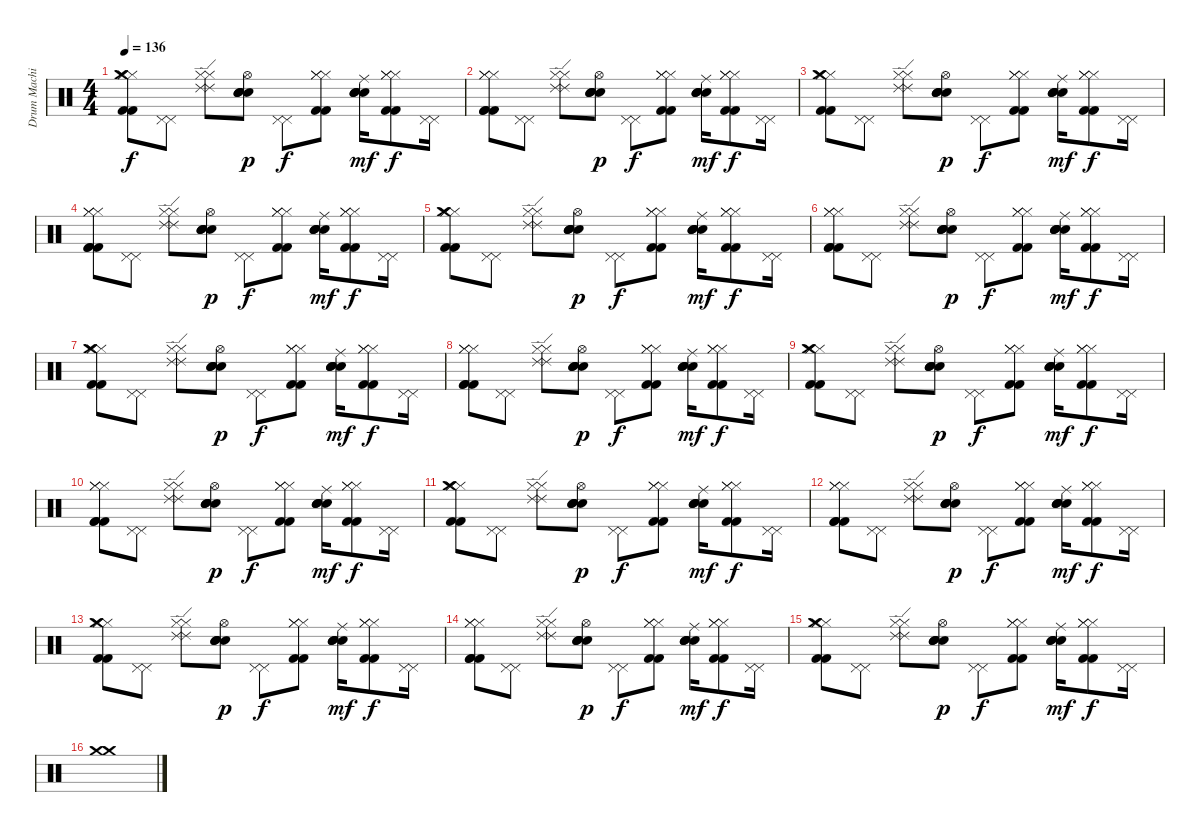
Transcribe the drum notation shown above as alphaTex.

\track ("Drum Machine" "Drum Machi") {instrument percussion}
\staff {score}
\articulation defaults
\ts (4 4)
\tempo 136
\clef neutral
\ks c
("Hi-Hat (closed)" "Kick (hit) 2" "Crash medium (hit)" "Kick (hit) 2" "Hi-Hat (closed)" "Hi-Hat (closed)").8{dy f} ("Pedal Hi-Hat (hit)" "Pedal Hi-Hat (hit)").8 ("Hi-Hat (closed)" "Hi-Hat (closed)" "Ride (edge) 2" "Ride (edge) 2").8 ("Electric Snare (hit)" "Snare (hit) 2" "Snare (hit) 2" "Hi-Hat (open)" "Electric Snare (hit)").8{dy p} ("Pedal Hi-Hat (hit)" "Pedal Hi-Hat (hit)").8{dy f} ("Hi-Hat (closed)" "Kick (hit) 2" "Hi-Hat (closed)" "Hi-Hat (closed)" "Kick (hit) 2").8 ("Ride (middle)" "Electric Snare (hit)" "Snare (hit) 2" "Snare (hit) 2" "Electric Snare (hit)").16{dy mf} ("Hi-Hat (closed)" "Kick (hit) 2" "Hi-Hat (closed)" "Hi-Hat (closed)" "Kick (hit) 2").8{dy f} ("Pedal Hi-Hat (hit)" "Pedal Hi-Hat (hit)").16 |
("Hi-Hat (closed)" "Kick (hit) 2" "Hi-Hat (closed)" "Kick (hit) 2" "Kick (hit) 2" "Hi-Hat (closed)").8 ("Pedal Hi-Hat (hit)" "Pedal Hi-Hat (hit)").8 ("Hi-Hat (closed)" "Hi-Hat (closed)" "Ride (edge) 2" "Ride (edge) 2").8 ("Electric Snare (hit)" "Snare (hit) 2" "Snare (hit) 2" "Hi-Hat (open)" "Electric Snare (hit)").8{dy p} ("Pedal Hi-Hat (hit)" "Pedal Hi-Hat (hit)").8{dy f} ("Hi-Hat (closed)" "Kick (hit) 2" "Hi-Hat (closed)" "Hi-Hat (closed)" "Kick (hit) 2").8 ("Ride (middle)" "Electric Snare (hit)" "Snare (hit) 2" "Snare (hit) 2" "Electric Snare (hit)").16{dy mf} ("Hi-Hat (closed)" "Kick (hit) 2" "Hi-Hat (closed)" "Hi-Hat (closed)" "Kick (hit) 2").8{dy f} ("Pedal Hi-Hat (hit)" "Pedal Hi-Hat (hit)").16 |
("Hi-Hat (closed)" "Kick (hit) 2" "Crash medium (hit)" "Kick (hit) 2" "Hi-Hat (closed)" "Hi-Hat (closed)").8 ("Pedal Hi-Hat (hit)" "Pedal Hi-Hat (hit)").8 ("Hi-Hat (closed)" "Hi-Hat (closed)" "Ride (edge) 2" "Ride (edge) 2").8 ("Electric Snare (hit)" "Snare (hit) 2" "Snare (hit) 2" "Hi-Hat (open)" "Electric Snare (hit)").8{dy p} ("Pedal Hi-Hat (hit)" "Pedal Hi-Hat (hit)").8{dy f} ("Hi-Hat (closed)" "Kick (hit) 2" "Hi-Hat (closed)" "Hi-Hat (closed)" "Kick (hit) 2").8 ("Ride (middle)" "Electric Snare (hit)" "Snare (hit) 2" "Snare (hit) 2" "Electric Snare (hit)").16{dy mf} ("Hi-Hat (closed)" "Kick (hit) 2" "Hi-Hat (closed)" "Hi-Hat (closed)" "Kick (hit) 2").8{dy f} ("Pedal Hi-Hat (hit)" "Pedal Hi-Hat (hit)").16 |
("Hi-Hat (closed)" "Kick (hit) 2" "Hi-Hat (closed)" "Kick (hit) 2" "Kick (hit) 2" "Hi-Hat (closed)").8 ("Pedal Hi-Hat (hit)" "Pedal Hi-Hat (hit)").8 ("Hi-Hat (closed)" "Hi-Hat (closed)" "Ride (edge) 2" "Ride (edge) 2").8 ("Electric Snare (hit)" "Snare (hit) 2" "Snare (hit) 2" "Hi-Hat (open)" "Electric Snare (hit)").8{dy p} ("Pedal Hi-Hat (hit)" "Pedal Hi-Hat (hit)").8{dy f} ("Hi-Hat (closed)" "Kick (hit) 2" "Hi-Hat (closed)" "Hi-Hat (closed)" "Kick (hit) 2").8 ("Ride (middle)" "Electric Snare (hit)" "Snare (hit) 2" "Snare (hit) 2" "Electric Snare (hit)").16{dy mf} ("Hi-Hat (closed)" "Kick (hit) 2" "Hi-Hat (closed)" "Hi-Hat (closed)" "Kick (hit) 2").8{dy f} ("Pedal Hi-Hat (hit)" "Pedal Hi-Hat (hit)").16 |
("Hi-Hat (closed)" "Kick (hit) 2" "Crash medium (hit)" "Kick (hit) 2" "Hi-Hat (closed)" "Hi-Hat (closed)").8 ("Pedal Hi-Hat (hit)" "Pedal Hi-Hat (hit)").8 ("Hi-Hat (closed)" "Hi-Hat (closed)" "Ride (edge) 2" "Ride (edge) 2").8 ("Electric Snare (hit)" "Snare (hit) 2" "Snare (hit) 2" "Hi-Hat (open)" "Electric Snare (hit)").8{dy p} ("Pedal Hi-Hat (hit)" "Pedal Hi-Hat (hit)").8{dy f} ("Hi-Hat (closed)" "Kick (hit) 2" "Hi-Hat (closed)" "Hi-Hat (closed)" "Kick (hit) 2").8 ("Ride (middle)" "Electric Snare (hit)" "Snare (hit) 2" "Snare (hit) 2" "Electric Snare (hit)").16{dy mf} ("Hi-Hat (closed)" "Kick (hit) 2" "Hi-Hat (closed)" "Hi-Hat (closed)" "Kick (hit) 2").8{dy f} ("Pedal Hi-Hat (hit)" "Pedal Hi-Hat (hit)").16 |
("Hi-Hat (closed)" "Kick (hit) 2" "Hi-Hat (closed)" "Kick (hit) 2" "Kick (hit) 2" "Hi-Hat (closed)").8 ("Pedal Hi-Hat (hit)" "Pedal Hi-Hat (hit)").8 ("Hi-Hat (closed)" "Hi-Hat (closed)" "Ride (edge) 2" "Ride (edge) 2").8 ("Electric Snare (hit)" "Snare (hit) 2" "Snare (hit) 2" "Hi-Hat (open)" "Electric Snare (hit)").8{dy p} ("Pedal Hi-Hat (hit)" "Pedal Hi-Hat (hit)").8{dy f} ("Hi-Hat (closed)" "Kick (hit) 2" "Hi-Hat (closed)" "Hi-Hat (closed)" "Kick (hit) 2").8 ("Ride (middle)" "Electric Snare (hit)" "Snare (hit) 2" "Snare (hit) 2" "Electric Snare (hit)").16{dy mf} ("Hi-Hat (closed)" "Kick (hit) 2" "Hi-Hat (closed)" "Hi-Hat (closed)" "Kick (hit) 2").8{dy f} ("Pedal Hi-Hat (hit)" "Pedal Hi-Hat (hit)").16 |
("Hi-Hat (closed)" "Kick (hit) 2" "Crash medium (hit)" "Kick (hit) 2" "Hi-Hat (closed)" "Hi-Hat (closed)").8 ("Pedal Hi-Hat (hit)" "Pedal Hi-Hat (hit)").8 ("Hi-Hat (closed)" "Hi-Hat (closed)" "Ride (edge) 2" "Ride (edge) 2").8 ("Electric Snare (hit)" "Snare (hit) 2" "Snare (hit) 2" "Hi-Hat (open)" "Electric Snare (hit)").8{dy p} ("Pedal Hi-Hat (hit)" "Pedal Hi-Hat (hit)").8{dy f} ("Hi-Hat (closed)" "Kick (hit) 2" "Hi-Hat (closed)" "Hi-Hat (closed)" "Kick (hit) 2").8 ("Ride (middle)" "Electric Snare (hit)" "Snare (hit) 2" "Snare (hit) 2" "Electric Snare (hit)").16{dy mf} ("Hi-Hat (closed)" "Kick (hit) 2" "Hi-Hat (closed)" "Hi-Hat (closed)" "Kick (hit) 2").8{dy f} ("Pedal Hi-Hat (hit)" "Pedal Hi-Hat (hit)").16 |
("Hi-Hat (closed)" "Kick (hit) 2" "Hi-Hat (closed)" "Kick (hit) 2" "Kick (hit) 2" "Hi-Hat (closed)").8 ("Pedal Hi-Hat (hit)" "Pedal Hi-Hat (hit)").8 ("Hi-Hat (closed)" "Hi-Hat (closed)" "Ride (edge) 2" "Ride (edge) 2").8 ("Electric Snare (hit)" "Snare (hit) 2" "Snare (hit) 2" "Hi-Hat (open)" "Electric Snare (hit)").8{dy p} ("Pedal Hi-Hat (hit)" "Pedal Hi-Hat (hit)").8{dy f} ("Hi-Hat (closed)" "Kick (hit) 2" "Hi-Hat (closed)" "Hi-Hat (closed)" "Kick (hit) 2").8 ("Ride (middle)" "Electric Snare (hit)" "Snare (hit) 2" "Snare (hit) 2" "Electric Snare (hit)").16{dy mf} ("Hi-Hat (closed)" "Kick (hit) 2" "Hi-Hat (closed)" "Hi-Hat (closed)" "Kick (hit) 2").8{dy f} ("Pedal Hi-Hat (hit)" "Pedal Hi-Hat (hit)").16 |
("Hi-Hat (closed)" "Kick (hit) 2" "Crash medium (hit)" "Kick (hit) 2" "Hi-Hat (closed)" "Hi-Hat (closed)").8 ("Pedal Hi-Hat (hit)" "Pedal Hi-Hat (hit)").8 ("Hi-Hat (closed)" "Hi-Hat (closed)" "Ride (edge) 2" "Ride (edge) 2").8 ("Electric Snare (hit)" "Snare (hit) 2" "Snare (hit) 2" "Hi-Hat (open)" "Electric Snare (hit)").8{dy p} ("Pedal Hi-Hat (hit)" "Pedal Hi-Hat (hit)").8{dy f} ("Hi-Hat (closed)" "Kick (hit) 2" "Hi-Hat (closed)" "Hi-Hat (closed)" "Kick (hit) 2").8 ("Ride (middle)" "Electric Snare (hit)" "Snare (hit) 2" "Snare (hit) 2" "Electric Snare (hit)").16{dy mf} ("Hi-Hat (closed)" "Kick (hit) 2" "Hi-Hat (closed)" "Hi-Hat (closed)" "Kick (hit) 2").8{dy f} ("Pedal Hi-Hat (hit)" "Pedal Hi-Hat (hit)").16 |
("Hi-Hat (closed)" "Kick (hit) 2" "Hi-Hat (closed)" "Kick (hit) 2" "Kick (hit) 2" "Hi-Hat (closed)").8 ("Pedal Hi-Hat (hit)" "Pedal Hi-Hat (hit)").8 ("Hi-Hat (closed)" "Hi-Hat (closed)" "Ride (edge) 2" "Ride (edge) 2").8 ("Electric Snare (hit)" "Snare (hit) 2" "Snare (hit) 2" "Hi-Hat (open)" "Electric Snare (hit)").8{dy p} ("Pedal Hi-Hat (hit)" "Pedal Hi-Hat (hit)").8{dy f} ("Hi-Hat (closed)" "Kick (hit) 2" "Hi-Hat (closed)" "Hi-Hat (closed)" "Kick (hit) 2").8 ("Ride (middle)" "Electric Snare (hit)" "Snare (hit) 2" "Snare (hit) 2" "Electric Snare (hit)").16{dy mf} ("Hi-Hat (closed)" "Kick (hit) 2" "Hi-Hat (closed)" "Hi-Hat (closed)" "Kick (hit) 2").8{dy f} ("Pedal Hi-Hat (hit)" "Pedal Hi-Hat (hit)").16 |
("Hi-Hat (closed)" "Kick (hit) 2" "Crash medium (hit)" "Kick (hit) 2" "Hi-Hat (closed)" "Hi-Hat (closed)").8 ("Pedal Hi-Hat (hit)" "Pedal Hi-Hat (hit)").8 ("Hi-Hat (closed)" "Hi-Hat (closed)" "Ride (edge) 2" "Ride (edge) 2").8 ("Electric Snare (hit)" "Snare (hit) 2" "Snare (hit) 2" "Hi-Hat (open)" "Electric Snare (hit)").8{dy p} ("Pedal Hi-Hat (hit)" "Pedal Hi-Hat (hit)").8{dy f} ("Hi-Hat (closed)" "Kick (hit) 2" "Hi-Hat (closed)" "Hi-Hat (closed)" "Kick (hit) 2").8 ("Ride (middle)" "Electric Snare (hit)" "Snare (hit) 2" "Snare (hit) 2" "Electric Snare (hit)").16{dy mf} ("Hi-Hat (closed)" "Kick (hit) 2" "Hi-Hat (closed)" "Hi-Hat (closed)" "Kick (hit) 2").8{dy f} ("Pedal Hi-Hat (hit)" "Pedal Hi-Hat (hit)").16 |
("Hi-Hat (closed)" "Kick (hit) 2" "Hi-Hat (closed)" "Kick (hit) 2" "Kick (hit) 2" "Hi-Hat (closed)").8 ("Pedal Hi-Hat (hit)" "Pedal Hi-Hat (hit)").8 ("Hi-Hat (closed)" "Hi-Hat (closed)" "Ride (edge) 2" "Ride (edge) 2").8 ("Electric Snare (hit)" "Snare (hit) 2" "Snare (hit) 2" "Hi-Hat (open)" "Electric Snare (hit)").8{dy p} ("Pedal Hi-Hat (hit)" "Pedal Hi-Hat (hit)").8{dy f} ("Hi-Hat (closed)" "Kick (hit) 2" "Hi-Hat (closed)" "Hi-Hat (closed)" "Kick (hit) 2").8 ("Ride (middle)" "Electric Snare (hit)" "Snare (hit) 2" "Snare (hit) 2" "Electric Snare (hit)").16{dy mf} ("Hi-Hat (closed)" "Kick (hit) 2" "Hi-Hat (closed)" "Hi-Hat (closed)" "Kick (hit) 2").8{dy f} ("Pedal Hi-Hat (hit)" "Pedal Hi-Hat (hit)").16 |
("Hi-Hat (closed)" "Kick (hit) 2" "Crash medium (hit)" "Kick (hit) 2" "Hi-Hat (closed)" "Hi-Hat (closed)").8 ("Pedal Hi-Hat (hit)" "Pedal Hi-Hat (hit)").8 ("Hi-Hat (closed)" "Hi-Hat (closed)" "Ride (edge) 2" "Ride (edge) 2").8 ("Electric Snare (hit)" "Snare (hit) 2" "Snare (hit) 2" "Hi-Hat (open)" "Electric Snare (hit)").8{dy p} ("Pedal Hi-Hat (hit)" "Pedal Hi-Hat (hit)").8{dy f} ("Hi-Hat (closed)" "Kick (hit) 2" "Hi-Hat (closed)" "Hi-Hat (closed)" "Kick (hit) 2").8 ("Ride (middle)" "Electric Snare (hit)" "Snare (hit) 2" "Snare (hit) 2" "Electric Snare (hit)").16{dy mf} ("Hi-Hat (closed)" "Kick (hit) 2" "Hi-Hat (closed)" "Hi-Hat (closed)" "Kick (hit) 2").8{dy f} ("Pedal Hi-Hat (hit)" "Pedal Hi-Hat (hit)").16 |
("Hi-Hat (closed)" "Kick (hit) 2" "Hi-Hat (closed)" "Kick (hit) 2" "Kick (hit) 2" "Hi-Hat (closed)").8 ("Pedal Hi-Hat (hit)" "Pedal Hi-Hat (hit)").8 ("Hi-Hat (closed)" "Hi-Hat (closed)" "Ride (edge) 2" "Ride (edge) 2").8 ("Electric Snare (hit)" "Snare (hit) 2" "Snare (hit) 2" "Hi-Hat (open)" "Electric Snare (hit)").8{dy p} ("Pedal Hi-Hat (hit)" "Pedal Hi-Hat (hit)").8{dy f} ("Hi-Hat (closed)" "Kick (hit) 2" "Hi-Hat (closed)" "Hi-Hat (closed)" "Kick (hit) 2").8 ("Ride (middle)" "Electric Snare (hit)" "Snare (hit) 2" "Snare (hit) 2" "Electric Snare (hit)").16{dy mf} ("Hi-Hat (closed)" "Kick (hit) 2" "Hi-Hat (closed)" "Hi-Hat (closed)" "Kick (hit) 2").8{dy f} ("Pedal Hi-Hat (hit)" "Pedal Hi-Hat (hit)").16 |
("Hi-Hat (closed)" "Kick (hit) 2" "Crash medium (hit)" "Kick (hit) 2" "Hi-Hat (closed)" "Hi-Hat (closed)").8 ("Pedal Hi-Hat (hit)" "Pedal Hi-Hat (hit)").8 ("Hi-Hat (closed)" "Hi-Hat (closed)" "Ride (edge) 2" "Ride (edge) 2").8 ("Electric Snare (hit)" "Snare (hit) 2" "Snare (hit) 2" "Hi-Hat (open)" "Electric Snare (hit)").8{dy p} ("Pedal Hi-Hat (hit)" "Pedal Hi-Hat (hit)").8{dy f} ("Hi-Hat (closed)" "Kick (hit) 2" "Hi-Hat (closed)" "Hi-Hat (closed)" "Kick (hit) 2").8 ("Ride (middle)" "Electric Snare (hit)" "Snare (hit) 2" "Snare (hit) 2" "Electric Snare (hit)").16{dy mf} ("Hi-Hat (closed)" "Kick (hit) 2" "Hi-Hat (closed)" "Hi-Hat (closed)" "Kick (hit) 2").8{dy f} ("Pedal Hi-Hat (hit)" "Pedal Hi-Hat (hit)").16 |
("Crash medium (hit)" "Crash medium (hit)").1
